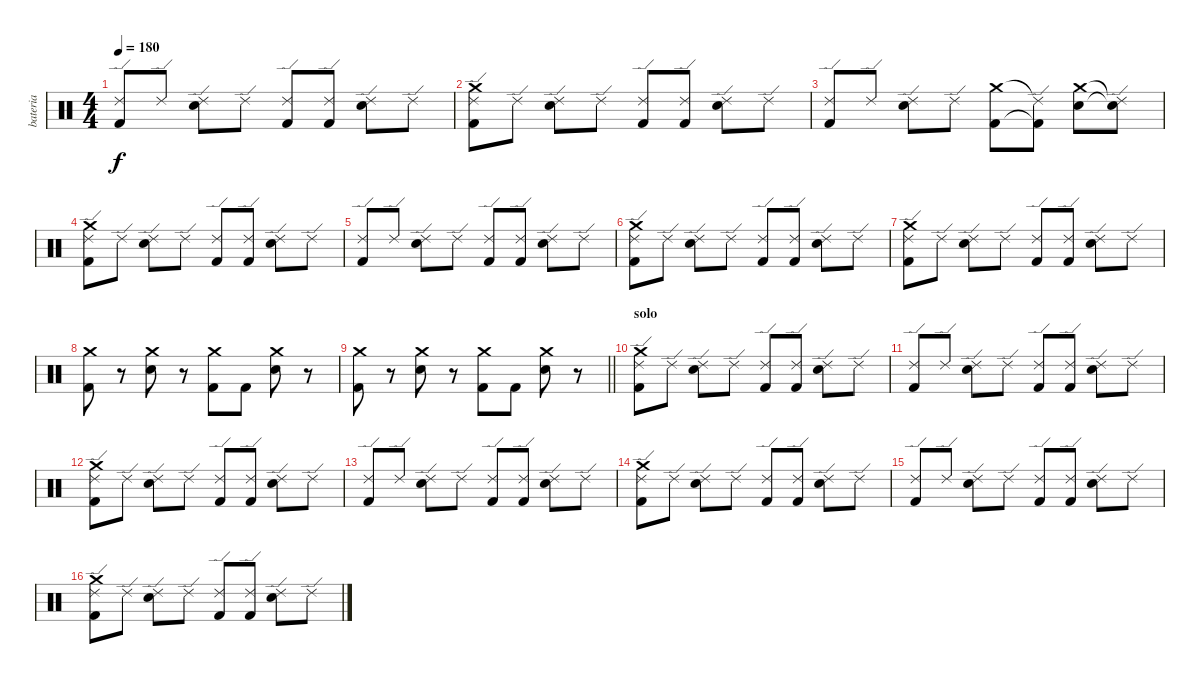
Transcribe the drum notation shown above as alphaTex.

\track ("bateria" "bateria") {instrument percussion}
\staff {score}
\articulation defaults
\ts (4 4)
\tempo 180
\clef neutral
\ks c
("Ride (edge) 2" "Kick (hit) 2").8{dy f} "Ride (edge) 2".8 ("Ride (edge) 2" "Electric Snare (hit)").8 "Ride (edge) 2".8 ("Ride (edge) 2" "Kick (hit) 2").8 ("Ride (edge) 2" "Kick (hit) 2").8 ("Ride (edge) 2" "Electric Snare (hit)").8 "Ride (edge) 2".8 |
("Ride (edge) 2" "Kick (hit) 2" "Crash medium (hit)").8 "Ride (edge) 2".8 ("Ride (edge) 2" "Electric Snare (hit)").8 "Ride (edge) 2".8 ("Ride (edge) 2" "Kick (hit) 2").8 ("Ride (edge) 2" "Kick (hit) 2").8 ("Ride (edge) 2" "Electric Snare (hit)").8 "Ride (edge) 2".8 |
("Ride (edge) 2" "Kick (hit) 2").8 "Ride (edge) 2".8 ("Ride (edge) 2" "Electric Snare (hit)").8 "Ride (edge) 2".8 ("Crash medium (hit)" "Kick (hit) 2").8 ("Ride (edge) 2"{t} "Kick (hit) 2"{t}).8 ("Crash medium (hit)" "Electric Snare (hit)").8 ("Ride (edge) 2"{t} "Snare (hit)"{t}).8 |
("Ride (edge) 2" "Kick (hit) 2" "Crash medium (hit)").8 "Ride (edge) 2".8 ("Ride (edge) 2" "Electric Snare (hit)").8 "Ride (edge) 2".8 ("Ride (edge) 2" "Kick (hit) 2").8 ("Ride (edge) 2" "Kick (hit) 2").8 ("Ride (edge) 2" "Electric Snare (hit)").8 "Ride (edge) 2".8 |
("Ride (edge) 2" "Kick (hit) 2").8 "Ride (edge) 2".8 ("Ride (edge) 2" "Electric Snare (hit)").8 "Ride (edge) 2".8 ("Ride (edge) 2" "Kick (hit) 2").8 ("Ride (edge) 2" "Kick (hit) 2").8 ("Ride (edge) 2" "Electric Snare (hit)").8 "Ride (edge) 2".8 |
("Ride (edge) 2" "Kick (hit) 2" "Crash medium (hit)").8 "Ride (edge) 2".8 ("Ride (edge) 2" "Electric Snare (hit)").8 "Ride (edge) 2".8 ("Ride (edge) 2" "Kick (hit) 2").8 ("Ride (edge) 2" "Kick (hit) 2").8 ("Ride (edge) 2" "Electric Snare (hit)").8 "Ride (edge) 2".8 |
("Ride (edge) 2" "Kick (hit) 2" "Crash medium (hit)").8 "Ride (edge) 2".8 ("Ride (edge) 2" "Electric Snare (hit)").8 "Ride (edge) 2".8 ("Ride (edge) 2" "Kick (hit) 2").8 ("Ride (edge) 2" "Kick (hit) 2").8 ("Ride (edge) 2" "Electric Snare (hit)").8 "Ride (edge) 2".8 |
("Crash medium (hit)" "Kick (hit) 2").8 r.8 ("Crash medium (hit)" "Electric Snare (hit)").8 r.8 ("Crash medium (hit)" "Kick (hit) 2").8 "Kick (hit) 2".8 ("Crash medium (hit)" "Electric Snare (hit)").8 r.8 |
\barLineRight lightlight
("Crash medium (hit)" "Kick (hit) 2").8 r.8 ("Crash medium (hit)" "Electric Snare (hit)").8 r.8 ("Crash medium (hit)" "Kick (hit) 2").8 "Kick (hit) 2".8 ("Crash medium (hit)" "Electric Snare (hit)").8 r.8 |
\section ("" "solo")
("Ride (edge) 2" "Kick (hit) 2" "Crash medium (hit)").8 "Ride (edge) 2".8 ("Ride (edge) 2" "Electric Snare (hit)").8 "Ride (edge) 2".8 ("Ride (edge) 2" "Kick (hit) 2").8 ("Ride (edge) 2" "Kick (hit) 2").8 ("Ride (edge) 2" "Electric Snare (hit)").8 "Ride (edge) 2".8 |
("Ride (edge) 2" "Kick (hit) 2").8 "Ride (edge) 2".8 ("Ride (edge) 2" "Electric Snare (hit)").8 "Ride (edge) 2".8 ("Ride (edge) 2" "Kick (hit) 2").8 ("Ride (edge) 2" "Kick (hit) 2").8 ("Ride (edge) 2" "Electric Snare (hit)").8 "Ride (edge) 2".8 |
("Ride (edge) 2" "Kick (hit) 2" "Crash medium (hit)").8 "Ride (edge) 2".8 ("Ride (edge) 2" "Electric Snare (hit)").8 "Ride (edge) 2".8 ("Ride (edge) 2" "Kick (hit) 2").8 ("Ride (edge) 2" "Kick (hit) 2").8 ("Ride (edge) 2" "Electric Snare (hit)").8 "Ride (edge) 2".8 |
("Ride (edge) 2" "Kick (hit) 2").8 "Ride (edge) 2".8 ("Ride (edge) 2" "Electric Snare (hit)").8 "Ride (edge) 2".8 ("Ride (edge) 2" "Kick (hit) 2").8 ("Ride (edge) 2" "Kick (hit) 2").8 ("Ride (edge) 2" "Electric Snare (hit)").8 "Ride (edge) 2".8 |
("Ride (edge) 2" "Kick (hit) 2" "Crash medium (hit)").8 "Ride (edge) 2".8 ("Ride (edge) 2" "Electric Snare (hit)").8 "Ride (edge) 2".8 ("Ride (edge) 2" "Kick (hit) 2").8 ("Ride (edge) 2" "Kick (hit) 2").8 ("Ride (edge) 2" "Electric Snare (hit)").8 "Ride (edge) 2".8 |
("Ride (edge) 2" "Kick (hit) 2").8 "Ride (edge) 2".8 ("Ride (edge) 2" "Electric Snare (hit)").8 "Ride (edge) 2".8 ("Ride (edge) 2" "Kick (hit) 2").8 ("Ride (edge) 2" "Kick (hit) 2").8 ("Ride (edge) 2" "Electric Snare (hit)").8 "Ride (edge) 2".8 |
("Ride (edge) 2" "Kick (hit) 2" "Crash medium (hit)").8 "Ride (edge) 2".8 ("Ride (edge) 2" "Electric Snare (hit)").8 "Ride (edge) 2".8 ("Ride (edge) 2" "Kick (hit) 2").8 ("Ride (edge) 2" "Kick (hit) 2").8 ("Ride (edge) 2" "Electric Snare (hit)").8 "Ride (edge) 2".8
